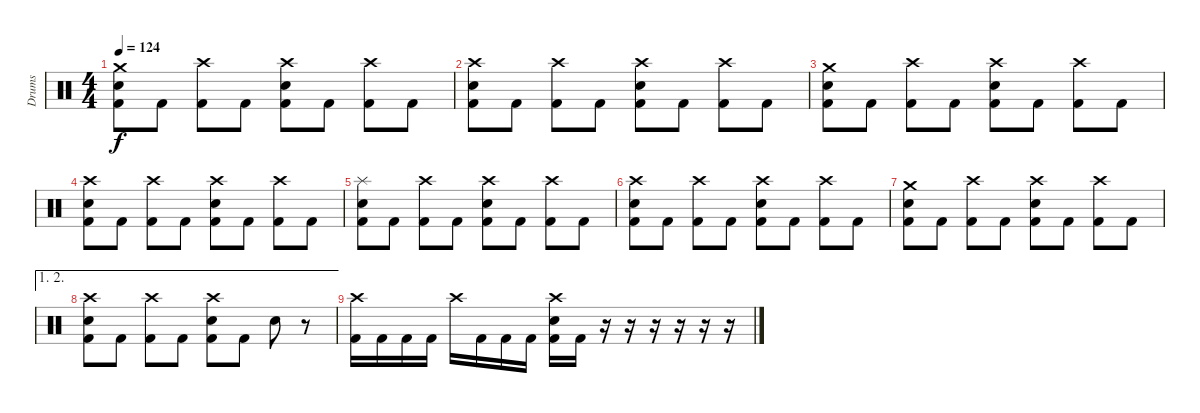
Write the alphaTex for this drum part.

\track ("Drums" "Drums") {instrument percussion}
\staff {score}
\articulation defaults
\ts (4 4)
\tempo 124
\clef neutral
\ks c
("Crash medium (hit)" "Electric Snare (hit)" "Kick (hit) 2").8{dy f} "Kick (hit) 2".8 ("Crash high (hit)" "Kick (hit) 2").8 "Kick (hit) 2".8 ("Crash high (hit)" "Electric Snare (hit)" "Kick (hit) 2").8 "Kick (hit) 2".8 ("Crash high (hit)" "Kick (hit) 2").8 "Kick (hit) 2".8 |
("Crash high (hit)" "Electric Snare (hit)" "Kick (hit) 2").8 "Kick (hit) 2".8 ("Crash high (hit)" "Kick (hit) 2").8 "Kick (hit) 2".8 ("Crash high (hit)" "Electric Snare (hit)" "Kick (hit) 2").8 "Kick (hit) 2".8 ("Crash high (hit)" "Kick (hit) 2").8 "Kick (hit) 2".8 |
("Crash medium (hit)" "Electric Snare (hit)" "Kick (hit) 2").8 "Kick (hit) 2".8 ("Crash high (hit)" "Kick (hit) 2").8 "Kick (hit) 2".8 ("Crash high (hit)" "Electric Snare (hit)" "Kick (hit) 2").8 "Kick (hit) 2".8 ("Crash high (hit)" "Kick (hit) 2").8 "Kick (hit) 2".8 |
("Crash high (hit)" "Electric Snare (hit)" "Kick (hit) 2").8 "Kick (hit) 2".8 ("Crash high (hit)" "Kick (hit) 2").8 "Kick (hit) 2".8 ("Crash high (hit)" "Electric Snare (hit)" "Kick (hit) 2").8 "Kick (hit) 2".8 ("Crash high (hit)" "Kick (hit) 2").8 "Kick (hit) 2".8 |
("Splash (hit)" "Electric Snare (hit)" "Kick (hit) 2").8 "Kick (hit) 2".8 ("Crash high (hit)" "Kick (hit) 2").8 "Kick (hit) 2".8 ("Crash high (hit)" "Electric Snare (hit)" "Kick (hit) 2").8 "Kick (hit) 2".8 ("Crash high (hit)" "Kick (hit) 2").8 "Kick (hit) 2".8 |
("Crash high (hit)" "Electric Snare (hit)" "Kick (hit) 2").8 "Kick (hit) 2".8 ("Crash high (hit)" "Kick (hit) 2").8 "Kick (hit) 2".8 ("Crash high (hit)" "Electric Snare (hit)" "Kick (hit) 2").8 "Kick (hit) 2".8 ("Crash high (hit)" "Kick (hit) 2").8 "Kick (hit) 2".8 |
("Crash medium (hit)" "Electric Snare (hit)" "Kick (hit) 2").8 "Kick (hit) 2".8 ("Crash high (hit)" "Kick (hit) 2").8 "Kick (hit) 2".8 ("Crash high (hit)" "Electric Snare (hit)" "Kick (hit) 2").8 "Kick (hit) 2".8 ("Crash high (hit)" "Kick (hit) 2").8 "Kick (hit) 2".8 |
\ae (1 2)
("Crash high (hit)" "Electric Snare (hit)" "Kick (hit) 2").8 "Kick (hit) 2".8 ("Crash high (hit)" "Kick (hit) 2").8 "Kick (hit) 2".8 ("Crash high (hit)" "Electric Snare (hit)" "Kick (hit) 2").8 "Kick (hit) 2".8 "Electric Snare (hit)".8 r.8 |
("Crash high (hit)" "Kick (hit) 2").16 "Kick (hit) 2".16 "Kick (hit) 2".16 "Kick (hit) 2".16 "Crash high (hit)".16 "Kick (hit) 2".16 "Kick (hit) 2".16 "Kick (hit) 2".16 ("Crash high (hit)" "Electric Snare (hit)" "Kick (hit) 2").16 "Kick (hit) 2".16 r.16 r.16 r.16 r.16 r.16 r.16
